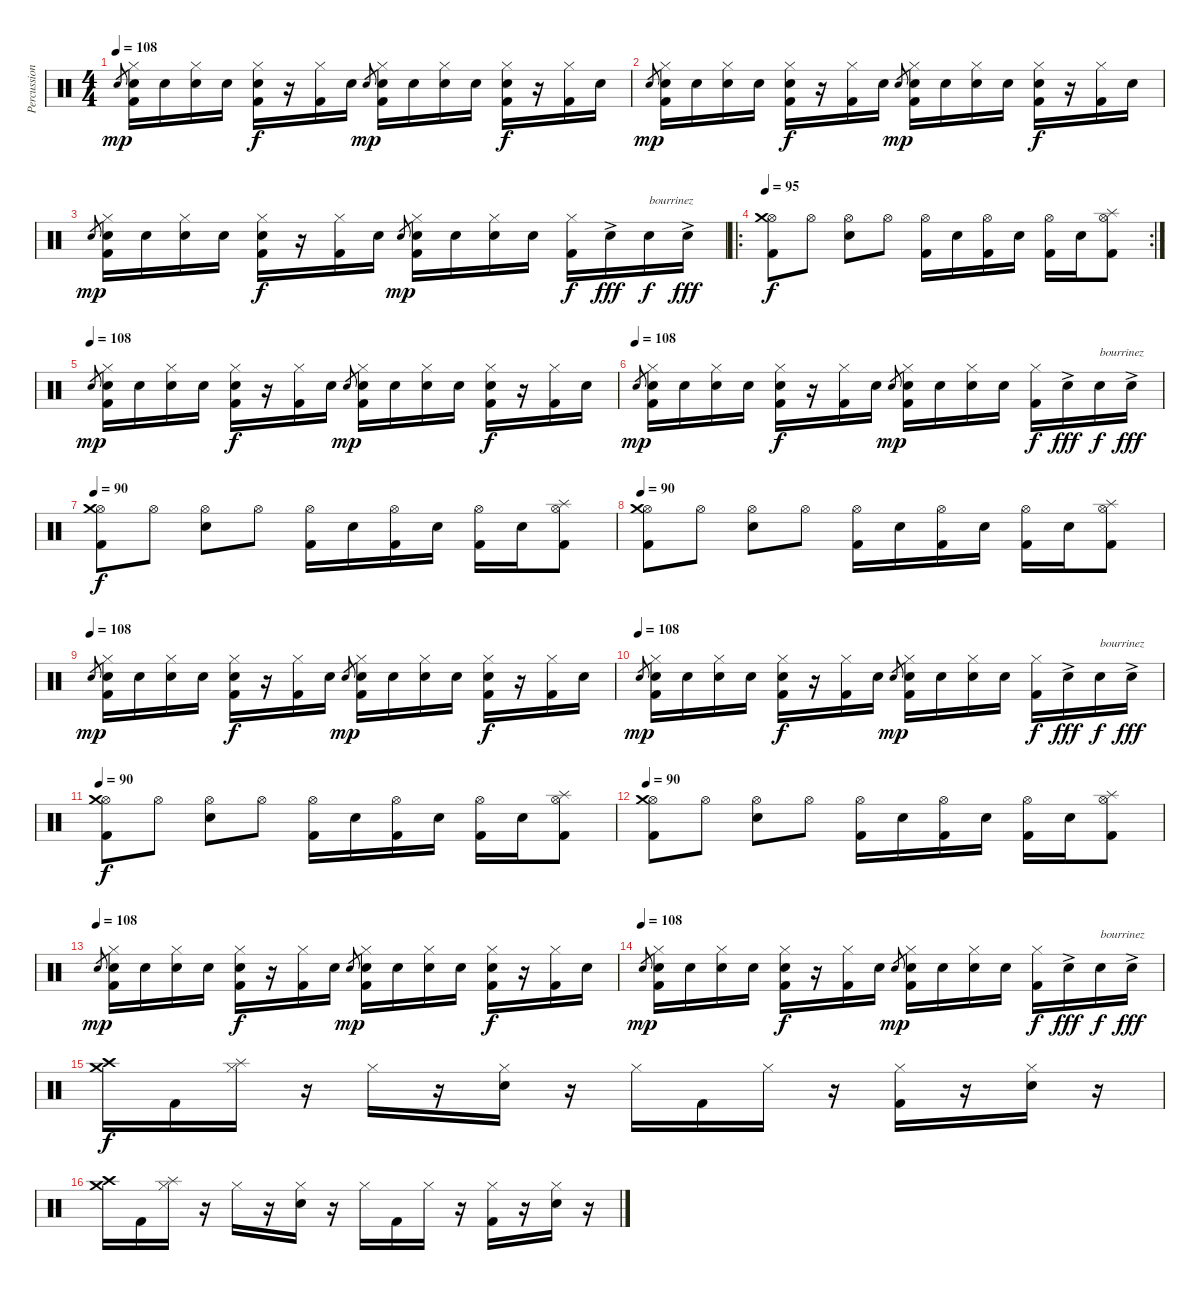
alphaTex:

\track ("Percussions" "Percussion") {instrument percussion}
\staff {score}
\articulation defaults
\ts (4 4)
\tempo 108
\clef neutral
\ks c "Electric Snare (hit)".8{gr dy mp}
("Hi-Hat (closed)" "Electric Snare (hit)" "Kick (hit) 2").16 "Electric Snare (hit)".16 ("Hi-Hat (closed)" "Electric Snare (hit)").16 "Electric Snare (hit)".16 ("Hi-Hat (closed)" "Electric Snare (hit)" "Kick (hit) 2").16{dy f} r.16 ("Hi-Hat (closed)" "Kick (hit) 2").16 "Electric Snare (hit)".16 "Electric Snare (hit)".8{gr dy mp} ("Hi-Hat (closed)" "Electric Snare (hit)" "Kick (hit) 2").16 "Electric Snare (hit)".16 ("Hi-Hat (closed)" "Electric Snare (hit)").16 "Electric Snare (hit)".16 ("Hi-Hat (closed)" "Electric Snare (hit)" "Kick (hit) 2").16{dy f} r.16 ("Hi-Hat (closed)" "Kick (hit) 2").16 "Electric Snare (hit)".16 |
"Electric Snare (hit)".8{gr dy mp} ("Hi-Hat (closed)" "Electric Snare (hit)" "Kick (hit) 2").16 "Electric Snare (hit)".16 ("Hi-Hat (closed)" "Electric Snare (hit)").16 "Electric Snare (hit)".16 ("Hi-Hat (closed)" "Electric Snare (hit)" "Kick (hit) 2").16{dy f} r.16 ("Hi-Hat (closed)" "Kick (hit) 2").16 "Electric Snare (hit)".16 "Electric Snare (hit)".8{gr dy mp} ("Hi-Hat (closed)" "Electric Snare (hit)" "Kick (hit) 2").16 "Electric Snare (hit)".16 ("Hi-Hat (closed)" "Electric Snare (hit)").16 "Electric Snare (hit)".16 ("Hi-Hat (closed)" "Electric Snare (hit)" "Kick (hit) 2").16{dy f} r.16 ("Hi-Hat (closed)" "Kick (hit) 2").16 "Electric Snare (hit)".16 |
"Electric Snare (hit)".8{gr dy mp} ("Hi-Hat (closed)" "Electric Snare (hit)" "Kick (hit) 2").16 "Electric Snare (hit)".16 ("Hi-Hat (closed)" "Electric Snare (hit)").16 "Electric Snare (hit)".16 ("Hi-Hat (closed)" "Electric Snare (hit)" "Kick (hit) 2").16{dy f} r.16 ("Hi-Hat (closed)" "Kick (hit) 2").16 "Electric Snare (hit)".16 "Electric Snare (hit)".8{gr dy mp} ("Hi-Hat (closed)" "Electric Snare (hit)" "Kick (hit) 2").16 "Electric Snare (hit)".16 ("Hi-Hat (closed)" "Electric Snare (hit)").16 "Electric Snare (hit)".16 ("Hi-Hat (closed)" "Kick (hit) 2").16{dy f} "Electric Snare (hit)"{ac}.16{dy fff volume 16} "Electric Snare (hit)".16{txt "bourrinez" dy f} "Electric Snare (hit)"{ac}.16{dy fff} |
\ro
\rc 2
\tempo 95
("Hi-Hat (open)" "Crash medium (hit)" "Kick (hit) 2").8{dy f volume 7} "Hi-Hat (open)".8 ("Hi-Hat (open)" "Electric Snare (hit)").8 "Hi-Hat (open)".8 ("Hi-Hat (open)" "Kick (hit) 2").16 "Electric Snare (hit)".16 ("Hi-Hat (open)" "Kick (hit) 2").16 "Electric Snare (hit)".16 ("Hi-Hat (open)" "Kick (hit) 2").16 "Electric Snare (hit)".16 ("Hi-Hat (open)" "Splash (hit)" "Kick (hit) 2").8 |
\tempo (108)
"Electric Snare (hit)".8{gr dy mp} ("Hi-Hat (closed)" "Electric Snare (hit)" "Kick (hit) 2").16 "Electric Snare (hit)".16 ("Hi-Hat (closed)" "Electric Snare (hit)").16 "Electric Snare (hit)".16 ("Hi-Hat (closed)" "Electric Snare (hit)" "Kick (hit) 2").16{dy f} r.16 ("Hi-Hat (closed)" "Kick (hit) 2").16 "Electric Snare (hit)".16 "Electric Snare (hit)".8{gr dy mp} ("Hi-Hat (closed)" "Electric Snare (hit)" "Kick (hit) 2").16 "Electric Snare (hit)".16 ("Hi-Hat (closed)" "Electric Snare (hit)").16 "Electric Snare (hit)".16 ("Hi-Hat (closed)" "Electric Snare (hit)" "Kick (hit) 2").16{dy f} r.16 ("Hi-Hat (closed)" "Kick (hit) 2").16 "Electric Snare (hit)".16 |
\tempo (108)
"Electric Snare (hit)".8{gr dy mp} ("Hi-Hat (closed)" "Electric Snare (hit)" "Kick (hit) 2").16 "Electric Snare (hit)".16 ("Hi-Hat (closed)" "Electric Snare (hit)").16 "Electric Snare (hit)".16 ("Hi-Hat (closed)" "Electric Snare (hit)" "Kick (hit) 2").16{dy f} r.16 ("Hi-Hat (closed)" "Kick (hit) 2").16 "Electric Snare (hit)".16 "Electric Snare (hit)".8{gr dy mp} ("Hi-Hat (closed)" "Electric Snare (hit)" "Kick (hit) 2").16 "Electric Snare (hit)".16 ("Hi-Hat (closed)" "Electric Snare (hit)").16 "Electric Snare (hit)".16 ("Hi-Hat (closed)" "Kick (hit) 2").16{dy f} "Electric Snare (hit)"{ac}.16{dy fff volume 16} "Electric Snare (hit)".16{txt "bourrinez" dy f} "Electric Snare (hit)"{ac}.16{dy fff} |
\tempo 90
("Hi-Hat (open)" "Crash medium (hit)" "Kick (hit) 2").8{dy f volume 7} "Hi-Hat (open)".8 ("Hi-Hat (open)" "Electric Snare (hit)").8 "Hi-Hat (open)".8 ("Hi-Hat (open)" "Kick (hit) 2").16 "Electric Snare (hit)".16 ("Hi-Hat (open)" "Kick (hit) 2").16 "Electric Snare (hit)".16 ("Hi-Hat (open)" "Kick (hit) 2").16 "Electric Snare (hit)".16 ("Hi-Hat (open)" "Splash (hit)" "Kick (hit) 2").8 |
\tempo 90
("Hi-Hat (open)" "Crash medium (hit)" "Kick (hit) 2").8{volume 7} "Hi-Hat (open)".8 ("Hi-Hat (open)" "Electric Snare (hit)").8 "Hi-Hat (open)".8 ("Hi-Hat (open)" "Kick (hit) 2").16 "Electric Snare (hit)".16 ("Hi-Hat (open)" "Kick (hit) 2").16 "Electric Snare (hit)".16 ("Hi-Hat (open)" "Kick (hit) 2").16 "Electric Snare (hit)".16 ("Hi-Hat (open)" "Splash (hit)" "Kick (hit) 2").8 |
\tempo (108)
"Electric Snare (hit)".8{gr dy mp} ("Hi-Hat (closed)" "Electric Snare (hit)" "Kick (hit) 2").16 "Electric Snare (hit)".16 ("Hi-Hat (closed)" "Electric Snare (hit)").16 "Electric Snare (hit)".16 ("Hi-Hat (closed)" "Electric Snare (hit)" "Kick (hit) 2").16{dy f} r.16 ("Hi-Hat (closed)" "Kick (hit) 2").16 "Electric Snare (hit)".16 "Electric Snare (hit)".8{gr dy mp} ("Hi-Hat (closed)" "Electric Snare (hit)" "Kick (hit) 2").16 "Electric Snare (hit)".16 ("Hi-Hat (closed)" "Electric Snare (hit)").16 "Electric Snare (hit)".16 ("Hi-Hat (closed)" "Electric Snare (hit)" "Kick (hit) 2").16{dy f} r.16 ("Hi-Hat (closed)" "Kick (hit) 2").16 "Electric Snare (hit)".16 |
\tempo (108)
"Electric Snare (hit)".8{gr dy mp} ("Hi-Hat (closed)" "Electric Snare (hit)" "Kick (hit) 2").16 "Electric Snare (hit)".16 ("Hi-Hat (closed)" "Electric Snare (hit)").16 "Electric Snare (hit)".16 ("Hi-Hat (closed)" "Electric Snare (hit)" "Kick (hit) 2").16{dy f} r.16 ("Hi-Hat (closed)" "Kick (hit) 2").16 "Electric Snare (hit)".16 "Electric Snare (hit)".8{gr dy mp} ("Hi-Hat (closed)" "Electric Snare (hit)" "Kick (hit) 2").16 "Electric Snare (hit)".16 ("Hi-Hat (closed)" "Electric Snare (hit)").16 "Electric Snare (hit)".16 ("Hi-Hat (closed)" "Kick (hit) 2").16{dy f} "Electric Snare (hit)"{ac}.16{dy fff volume 16} "Electric Snare (hit)".16{txt "bourrinez" dy f} "Electric Snare (hit)"{ac}.16{dy fff} |
\tempo 90
("Hi-Hat (open)" "Crash medium (hit)" "Kick (hit) 2").8{dy f volume 7} "Hi-Hat (open)".8 ("Hi-Hat (open)" "Electric Snare (hit)").8 "Hi-Hat (open)".8 ("Hi-Hat (open)" "Kick (hit) 2").16 "Electric Snare (hit)".16 ("Hi-Hat (open)" "Kick (hit) 2").16 "Electric Snare (hit)".16 ("Hi-Hat (open)" "Kick (hit) 2").16 "Electric Snare (hit)".16 ("Hi-Hat (open)" "Splash (hit)" "Kick (hit) 2").8 |
\tempo 90
("Hi-Hat (open)" "Crash medium (hit)" "Kick (hit) 2").8{volume 7} "Hi-Hat (open)".8 ("Hi-Hat (open)" "Electric Snare (hit)").8 "Hi-Hat (open)".8 ("Hi-Hat (open)" "Kick (hit) 2").16 "Electric Snare (hit)".16 ("Hi-Hat (open)" "Kick (hit) 2").16 "Electric Snare (hit)".16 ("Hi-Hat (open)" "Kick (hit) 2").16 "Electric Snare (hit)".16 ("Hi-Hat (open)" "Splash (hit)" "Kick (hit) 2").8 |
\tempo (108)
"Electric Snare (hit)".8{gr dy mp} ("Hi-Hat (closed)" "Electric Snare (hit)" "Kick (hit) 2").16 "Electric Snare (hit)".16 ("Hi-Hat (closed)" "Electric Snare (hit)").16 "Electric Snare (hit)".16 ("Hi-Hat (closed)" "Electric Snare (hit)" "Kick (hit) 2").16{dy f} r.16 ("Hi-Hat (closed)" "Kick (hit) 2").16 "Electric Snare (hit)".16 "Electric Snare (hit)".8{gr dy mp} ("Hi-Hat (closed)" "Electric Snare (hit)" "Kick (hit) 2").16 "Electric Snare (hit)".16 ("Hi-Hat (closed)" "Electric Snare (hit)").16 "Electric Snare (hit)".16 ("Hi-Hat (closed)" "Electric Snare (hit)" "Kick (hit) 2").16{dy f} r.16 ("Hi-Hat (closed)" "Kick (hit) 2").16 "Electric Snare (hit)".16 |
\tempo (108)
"Electric Snare (hit)".8{gr dy mp} ("Hi-Hat (closed)" "Electric Snare (hit)" "Kick (hit) 2").16 "Electric Snare (hit)".16 ("Hi-Hat (closed)" "Electric Snare (hit)").16 "Electric Snare (hit)".16 ("Hi-Hat (closed)" "Electric Snare (hit)" "Kick (hit) 2").16{dy f} r.16 ("Hi-Hat (closed)" "Kick (hit) 2").16 "Electric Snare (hit)".16 "Electric Snare (hit)".8{gr dy mp} ("Hi-Hat (closed)" "Electric Snare (hit)" "Kick (hit) 2").16 "Electric Snare (hit)".16 ("Hi-Hat (closed)" "Electric Snare (hit)").16 "Electric Snare (hit)".16 ("Hi-Hat (closed)" "Kick (hit) 2").16{dy f} "Electric Snare (hit)"{ac}.16{dy fff volume 16} "Electric Snare (hit)".16{txt "bourrinez" dy f} "Electric Snare (hit)"{ac}.16{dy fff} |
("Crash medium (hit)" "Crash high (hit)").16{dy f} "Kick (hit) 2".16 ("Hi-Hat (closed)" "Splash (hit)").16 r.16 "Hi-Hat (closed)".16 r.16 ("Hi-Hat (closed)" "Electric Snare (hit)").16 r.16 "Hi-Hat (closed)".16 "Kick (hit) 2".16 "Hi-Hat (closed)".16 r.16 ("Hi-Hat (closed)" "Kick (hit) 2").16 r.16 ("Hi-Hat (closed)" "Electric Snare (hit)").16 r.16 |
("Crash medium (hit)" "Crash high (hit)").16 "Kick (hit) 2".16 ("Hi-Hat (closed)" "Splash (hit)").16 r.16 "Hi-Hat (closed)".16 r.16 ("Hi-Hat (closed)" "Electric Snare (hit)").16 r.16 "Hi-Hat (closed)".16 "Kick (hit) 2".16 "Hi-Hat (closed)".16 r.16 ("Hi-Hat (closed)" "Kick (hit) 2").16 r.16 ("Hi-Hat (closed)" "Electric Snare (hit)").16 r.16
